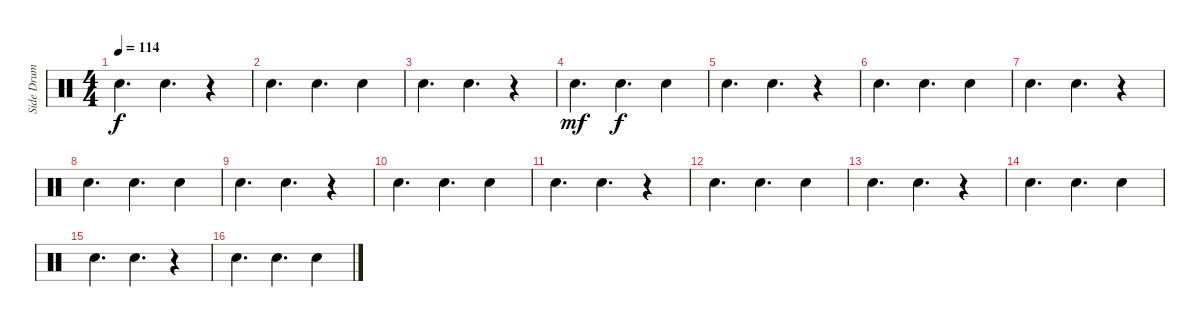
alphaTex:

\track ("Side Drum" "Side Drum") {instrument percussion}
\staff {score}
\articulation defaults
\ts (4 4)
\tempo 114
\clef neutral
\ks c "Snare (hit) 2".4{d dy f} "Snare (hit) 2".4{d}
r.4 |
"Snare (hit) 2".4{d} "Snare (hit) 2".4{d} "Snare (hit) 2".4 |
"Snare (hit) 2".4{d} "Snare (hit) 2".4{d} r.4 |
"Snare (hit) 2".4{d dy mf} "Snare (hit) 2".4{d dy f} "Snare (hit) 2".4 |
"Snare (hit) 2".4{d} "Snare (hit) 2".4{d} r.4 |
"Snare (hit) 2".4{d} "Snare (hit) 2".4{d} "Snare (hit) 2".4 |
"Snare (hit) 2".4{d} "Snare (hit) 2".4{d} r.4 |
"Snare (hit) 2".4{d} "Snare (hit) 2".4{d} "Snare (hit) 2".4 |
"Snare (hit) 2".4{d} "Snare (hit) 2".4{d} r.4 |
"Snare (hit) 2".4{d} "Snare (hit) 2".4{d} "Snare (hit) 2".4 |
"Snare (hit) 2".4{d} "Snare (hit) 2".4{d} r.4 |
"Snare (hit) 2".4{d} "Snare (hit) 2".4{d} "Snare (hit) 2".4 |
"Snare (hit) 2".4{d} "Snare (hit) 2".4{d} r.4 |
"Snare (hit) 2".4{d} "Snare (hit) 2".4{d} "Snare (hit) 2".4 |
"Snare (hit) 2".4{d} "Snare (hit) 2".4{d} r.4 |
"Snare (hit) 2".4{d} "Snare (hit) 2".4{d} "Snare (hit) 2".4
